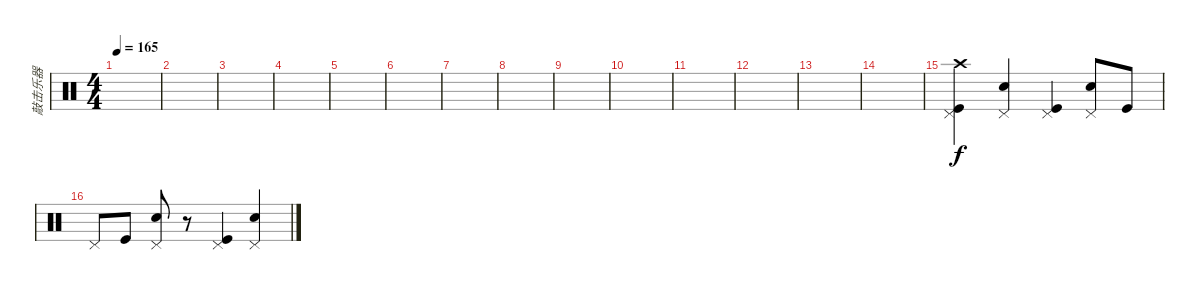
\track ("敲击乐器" "敲击乐器") {instrument percussion}
\staff {score}
\articulation defaults
\ts (4 4)
\tempo 165
\clef neutral
\ks c
|
|
|
|
|
|
|
|
|
|
|
|
|
|
("Crash high (hit)" "Pedal Hi-Hat (hit)" "Kick (hit)").4 ("Pedal Hi-Hat (hit)" "Snare (hit) 2").4 ("Pedal Hi-Hat (hit)" "Kick (hit)").4 ("Pedal Hi-Hat (hit)" "Snare (hit) 2").8 "Kick (hit)".8 |
"Pedal Hi-Hat (hit)".8 "Kick (hit)".8 ("Pedal Hi-Hat (hit)" "Snare (hit) 2").8 r.8 ("Kick (hit)" "Pedal Hi-Hat (hit)").4 ("Snare (hit) 2" "Pedal Hi-Hat (hit)").4
